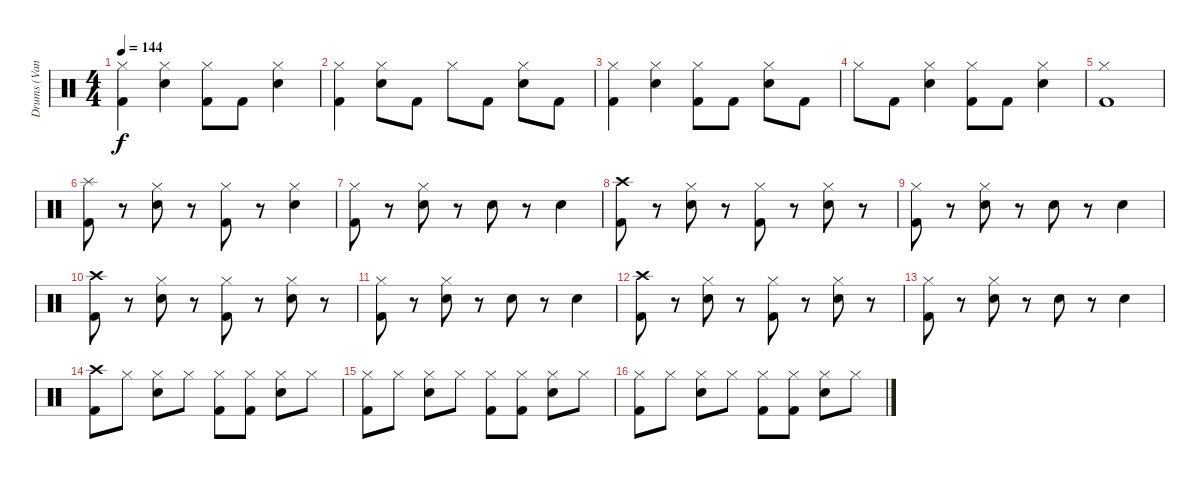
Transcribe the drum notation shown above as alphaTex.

\track ("Drums (Vandel)" "Drums (Van") {instrument percussion}
\staff {score}
\articulation defaults
\ts (4 4)
\tempo 144
\clef neutral
\ks c
("Hi-Hat (closed)" "Kick (hit) 2").4{dy f} ("Hi-Hat (closed)" "Snare (hit) 2").4 ("Hi-Hat (closed)" "Kick (hit) 2").8 "Kick (hit) 2".8 ("Hi-Hat (closed)" "Snare (hit) 2").4 |
("Hi-Hat (closed)" "Kick (hit) 2").4 ("Hi-Hat (closed)" "Snare (hit) 2").8 "Kick (hit) 2".8 "Hi-Hat (closed)".8 "Kick (hit) 2".8 ("Hi-Hat (closed)" "Snare (hit) 2").8 "Kick (hit) 2".8 |
("Hi-Hat (closed)" "Kick (hit) 2").4 ("Hi-Hat (closed)" "Snare (hit) 2").4 ("Hi-Hat (closed)" "Kick (hit) 2").8 "Kick (hit) 2".8 ("Hi-Hat (closed)" "Snare (hit) 2").8 "Kick (hit) 2".8 |
"Hi-Hat (closed)".8 "Kick (hit) 2".8 ("Hi-Hat (closed)" "Snare (hit) 2").4 ("Hi-Hat (closed)" "Kick (hit) 2").8 "Kick (hit) 2".8 ("Hi-Hat (closed)" "Snare (hit) 2").4 |
("Hi-Hat (closed)" "Kick (hit) 2").1 |
("Splash (hit)" "Kick (hit) 2").8 r.8 ("Hi-Hat (closed)" "Snare (hit) 2").8 r.8 ("Hi-Hat (closed)" "Kick (hit) 2").8 r.8 ("Hi-Hat (closed)" "Snare (hit) 2").4 |
("Hi-Hat (closed)" "Kick (hit) 2").8 r.8 ("Hi-Hat (closed)" "Snare (hit) 2").8 r.8 "Snare (hit) 2".8 r.8 "Snare (hit) 2".4 |
("Crash high (hit)" "Kick (hit) 2").8 r.8 ("Hi-Hat (closed)" "Snare (hit) 2").8 r.8 ("Hi-Hat (closed)" "Kick (hit) 2").8 r.8 ("Hi-Hat (closed)" "Snare (hit) 2").8 r.8 |
("Hi-Hat (closed)" "Kick (hit) 2").8 r.8 ("Hi-Hat (closed)" "Snare (hit) 2").8 r.8 "Snare (hit) 2".8 r.8 "Snare (hit) 2".4 |
("Crash high (hit)" "Kick (hit) 2").8 r.8 ("Hi-Hat (closed)" "Snare (hit) 2").8 r.8 ("Hi-Hat (closed)" "Kick (hit) 2").8 r.8 ("Hi-Hat (closed)" "Snare (hit) 2").8 r.8 |
("Hi-Hat (closed)" "Kick (hit) 2").8 r.8 ("Hi-Hat (closed)" "Snare (hit) 2").8 r.8 "Snare (hit) 2".8 r.8 "Snare (hit) 2".4 |
("Crash high (hit)" "Kick (hit) 2").8 r.8 ("Hi-Hat (closed)" "Snare (hit) 2").8 r.8 ("Hi-Hat (closed)" "Kick (hit) 2").8 r.8 ("Hi-Hat (closed)" "Snare (hit) 2").8 r.8 |
("Hi-Hat (closed)" "Kick (hit) 2").8 r.8 ("Hi-Hat (closed)" "Snare (hit) 2").8 r.8 "Snare (hit) 2".8 r.8 "Snare (hit) 2".4 |
("Crash high (hit)" "Kick (hit) 2").8 "Hi-Hat (closed)".8 ("Hi-Hat (closed)" "Snare (hit) 2").8 "Hi-Hat (closed)".8 ("Hi-Hat (closed)" "Kick (hit) 2").8 ("Hi-Hat (closed)" "Kick (hit) 2").8 ("Hi-Hat (closed)" "Snare (hit) 2").8 "Hi-Hat (closed)".8 |
("Hi-Hat (closed)" "Kick (hit) 2").8 "Hi-Hat (closed)".8 ("Hi-Hat (closed)" "Snare (hit) 2").8 "Hi-Hat (closed)".8 ("Hi-Hat (closed)" "Kick (hit) 2").8 ("Hi-Hat (closed)" "Kick (hit) 2").8 ("Hi-Hat (closed)" "Snare (hit) 2").8 "Hi-Hat (closed)".8 |
("Hi-Hat (closed)" "Kick (hit) 2").8 "Hi-Hat (closed)".8 ("Hi-Hat (closed)" "Snare (hit) 2").8 "Hi-Hat (closed)".8 ("Hi-Hat (closed)" "Kick (hit) 2").8 ("Hi-Hat (closed)" "Kick (hit) 2").8 ("Hi-Hat (closed)" "Snare (hit) 2").8 "Hi-Hat (closed)".8
